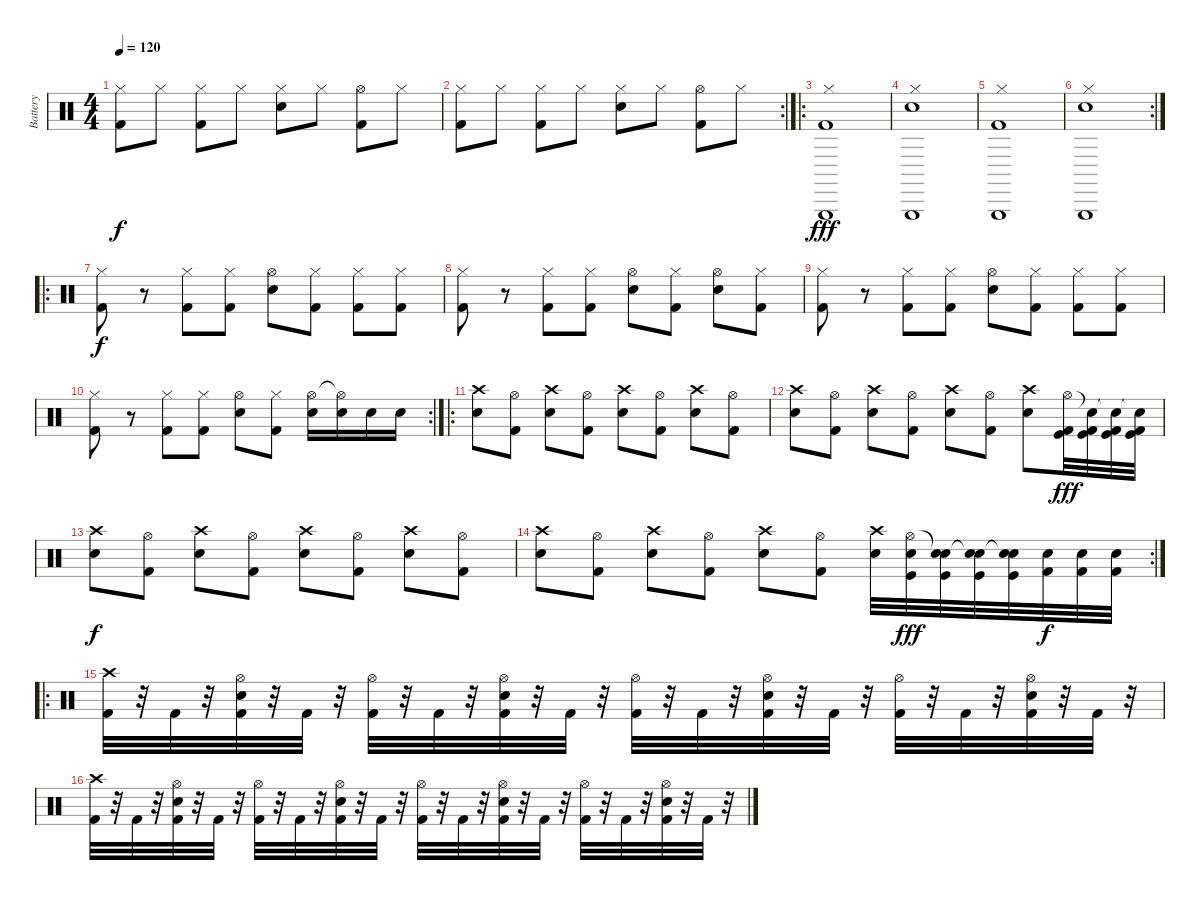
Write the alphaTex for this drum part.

\track ("Battery" "Battery") {instrument percussion}
\staff {score}
\articulation defaults
\ts (4 4)
\tempo 120
\clef neutral
\ks c
("Hi-Hat (closed)" "Kick (hit) 2").8{dy f} "Hi-Hat (closed)".8 ("Hi-Hat (closed)" "Kick (hit) 2").8 "Hi-Hat (closed)".8 ("Hi-Hat (closed)" "Electric Snare (hit)").8 "Hi-Hat (closed)".8 ("Hi-Hat (open)" "Kick (hit) 2").8 "Hi-Hat (closed)".8 |
\rc 2
("Hi-Hat (closed)" "Kick (hit) 2").8 "Hi-Hat (closed)".8 ("Hi-Hat (closed)" "Kick (hit) 2").8 "Hi-Hat (closed)".8 ("Hi-Hat (closed)" "Electric Snare (hit)").8 "Hi-Hat (closed)".8 ("Hi-Hat (open)" "Kick (hit) 2").8 "Hi-Hat (closed)".8 |
\ro
("Hi-Hat (closed)" "Kick (hit) 2" "Triangle (hit)").1{dy fff} |
("Hi-Hat (closed)" "Electric Snare (hit)" "Triangle (hit)").1 |
("Hi-Hat (closed)" "Kick (hit) 2" "Triangle (hit)").1 |
\rc 2
("Hi-Hat (closed)" "Electric Snare (hit)" "Triangle (hit)").1 |
\ro
("Hi-Hat (closed)" "Kick (hit) 2").8{dy f volume 8} r.8 ("Hi-Hat (closed)" "Kick (hit) 2").8 ("Hi-Hat (closed)" "Kick (hit) 2").8 ("Hi-Hat (open)" "Electric Snare (hit)").8 ("Hi-Hat (closed)" "Kick (hit) 2").8 ("Hi-Hat (closed)" "Kick (hit) 2").8 ("Hi-Hat (closed)" "Kick (hit) 2").8 |
("Hi-Hat (closed)" "Kick (hit) 2").8 r.8 ("Hi-Hat (closed)" "Kick (hit) 2").8 ("Hi-Hat (closed)" "Kick (hit) 2").8 ("Hi-Hat (open)" "Electric Snare (hit)").8 ("Hi-Hat (closed)" "Kick (hit) 2").8 ("Hi-Hat (open)" "Electric Snare (hit)").8 ("Hi-Hat (closed)" "Kick (hit) 2").8 |
("Hi-Hat (closed)" "Kick (hit) 2").8 r.8 ("Hi-Hat (closed)" "Kick (hit) 2").8 ("Hi-Hat (closed)" "Kick (hit) 2").8 ("Hi-Hat (open)" "Electric Snare (hit)").8 ("Hi-Hat (closed)" "Kick (hit) 2").8 ("Hi-Hat (closed)" "Kick (hit) 2").8 ("Hi-Hat (closed)" "Kick (hit) 2").8 |
\rc 2
("Hi-Hat (closed)" "Kick (hit) 2").8 r.8 ("Hi-Hat (closed)" "Kick (hit) 2").8 ("Hi-Hat (closed)" "Kick (hit) 2").8 ("Hi-Hat (open)" "Electric Snare (hit)").8 ("Hi-Hat (closed)" "Kick (hit) 2").8 ("Hi-Hat (open)" "Electric Snare (hit)").16 ("Hi-Hat (open)"{t} "Electric Snare (hit)").16 "Electric Snare (hit)".16 "Electric Snare (hit)".16 |
\ro
("Crash high (hit)" "Electric Snare (hit)").8{volume 12} ("Hi-Hat (open)" "Kick (hit) 2").8 ("Crash high (hit)" "Electric Snare (hit)").8 ("Hi-Hat (open)" "Kick (hit) 2").8 ("Crash high (hit)" "Electric Snare (hit)").8 ("Hi-Hat (open)" "Kick (hit) 2").8 ("Crash high (hit)" "Electric Snare (hit)").8 ("Hi-Hat (open)" "Kick (hit) 2").8 |
("Crash high (hit)" "Electric Snare (hit)").8{volume 12} ("Hi-Hat (open)" "Kick (hit) 2").8 ("Crash high (hit)" "Electric Snare (hit)").8 ("Hi-Hat (open)" "Kick (hit) 2").8 ("Crash high (hit)" "Electric Snare (hit)").8 ("Hi-Hat (open)" "Kick (hit) 2").8 ("Crash high (hit)" "Electric Snare (hit)").8 ("Kick (hit)" "Hi-Hat (open)" "Kick (hit) 2").32{dy fff} ("Kick (hit)" "Snare (hit)"{t} "Kick (hit) 2").32 ("Kick (hit)" "Snare (hit)"{t} "Kick (hit) 2").32 ("Kick (hit)" "Snare (hit)"{t} "Kick (hit) 2").32 |
("Crash high (hit)" "Electric Snare (hit)").8{dy f volume 12} ("Hi-Hat (open)" "Kick (hit) 2").8 ("Crash high (hit)" "Electric Snare (hit)").8 ("Hi-Hat (open)" "Kick (hit) 2").8 ("Crash high (hit)" "Electric Snare (hit)").8 ("Hi-Hat (open)" "Kick (hit) 2").8 ("Crash high (hit)" "Electric Snare (hit)").8 ("Hi-Hat (open)" "Kick (hit) 2").8 |
\rc 2
("Crash high (hit)" "Electric Snare (hit)").8{volume 12} ("Hi-Hat (open)" "Kick (hit) 2").8 ("Crash high (hit)" "Electric Snare (hit)").8 ("Hi-Hat (open)" "Kick (hit) 2").8 ("Crash high (hit)" "Electric Snare (hit)").8 ("Hi-Hat (open)" "Kick (hit) 2").8 ("Crash high (hit)" "Electric Snare (hit)").32 ("Kick (hit)" "Hi-Hat (open)" "Electric Snare (hit)").32{dy fff} ("Kick (hit)" "Snare (hit)"{t} "Electric Snare (hit)").32 ("Kick (hit)" "Snare (hit)"{t} "Electric Snare (hit)").32 ("Kick (hit)" "Snare (hit)"{t} "Electric Snare (hit)").32 ("Kick (hit) 2" "Electric Snare (hit)").32{dy f} ("Kick (hit) 2" "Electric Snare (hit)").32 ("Kick (hit) 2" "Electric Snare (hit)").32 |
\ro
("Crash high (hit)" "Kick (hit) 2").32 r.32 "Kick (hit) 2".32 r.32 ("Hi-Hat (open)" "Electric Snare (hit)" "Kick (hit) 2").32 r.32 "Kick (hit) 2".32 r.32 ("Hi-Hat (open)" "Kick (hit) 2").32 r.32 "Kick (hit) 2".32 r.32 ("Hi-Hat (open)" "Electric Snare (hit)" "Kick (hit) 2").32 r.32 "Kick (hit) 2".32 r.32 ("Hi-Hat (open)" "Kick (hit) 2").32 r.32 "Kick (hit) 2".32 r.32 ("Hi-Hat (open)" "Electric Snare (hit)" "Kick (hit) 2").32 r.32 "Kick (hit) 2".32 r.32 ("Hi-Hat (open)" "Kick (hit) 2").32 r.32 "Kick (hit) 2".32 r.32 ("Hi-Hat (open)" "Electric Snare (hit)" "Kick (hit) 2").32 r.32 "Kick (hit) 2".32 r.32 |
("Crash high (hit)" "Kick (hit) 2").32 r.32 "Kick (hit) 2".32 r.32 ("Hi-Hat (open)" "Electric Snare (hit)" "Kick (hit) 2").32 r.32 "Kick (hit) 2".32 r.32 ("Hi-Hat (open)" "Kick (hit) 2").32 r.32 "Kick (hit) 2".32 r.32 ("Hi-Hat (open)" "Electric Snare (hit)" "Kick (hit) 2").32 r.32 "Kick (hit) 2".32 r.32 ("Hi-Hat (open)" "Kick (hit) 2").32 r.32 "Kick (hit) 2".32 r.32 ("Hi-Hat (open)" "Electric Snare (hit)" "Kick (hit) 2").32 r.32 "Kick (hit) 2".32 r.32 ("Hi-Hat (open)" "Kick (hit) 2").32 r.32 "Kick (hit) 2".32 r.32 ("Hi-Hat (open)" "Electric Snare (hit)" "Kick (hit) 2").32 r.32 "Kick (hit) 2".32 r.32
